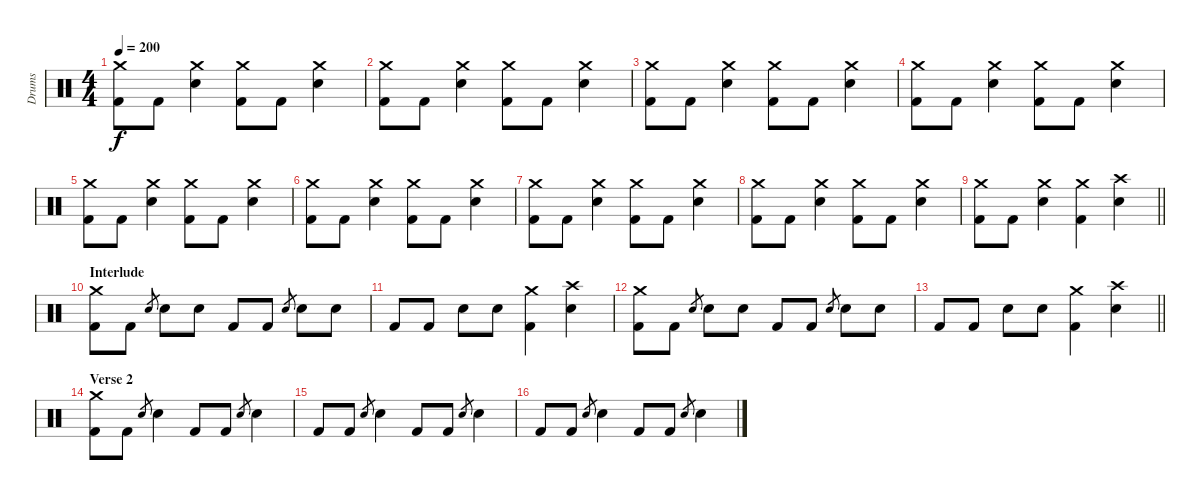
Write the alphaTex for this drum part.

\track ("Drums" "Drums") {instrument percussion}
\staff {score}
\articulation defaults
\ts (4 4)
\tempo 200
\clef neutral
\ks c
("Crash medium (hit)" "Kick (hit) 2").8{dy f} "Kick (hit) 2".8 ("Crash medium (hit)" "Electric Snare (hit)").4 ("Crash medium (hit)" "Kick (hit) 2").8 "Kick (hit) 2".8 ("Crash medium (hit)" "Electric Snare (hit)").4 |
("Crash medium (hit)" "Kick (hit) 2").8 "Kick (hit) 2".8 ("Crash medium (hit)" "Electric Snare (hit)").4 ("Crash medium (hit)" "Kick (hit) 2").8 "Kick (hit) 2".8 ("Crash medium (hit)" "Electric Snare (hit)").4 |
("Crash medium (hit)" "Kick (hit) 2").8 "Kick (hit) 2".8 ("Crash medium (hit)" "Electric Snare (hit)").4 ("Crash medium (hit)" "Kick (hit) 2").8 "Kick (hit) 2".8 ("Crash medium (hit)" "Electric Snare (hit)").4 |
("Crash medium (hit)" "Kick (hit) 2").8 "Kick (hit) 2".8 ("Crash medium (hit)" "Electric Snare (hit)").4 ("Crash medium (hit)" "Kick (hit) 2").8 "Kick (hit) 2".8 ("Crash medium (hit)" "Electric Snare (hit)").4 |
("Crash medium (hit)" "Kick (hit) 2").8 "Kick (hit) 2".8 ("Crash medium (hit)" "Electric Snare (hit)").4 ("Crash medium (hit)" "Kick (hit) 2").8 "Kick (hit) 2".8 ("Crash medium (hit)" "Electric Snare (hit)").4 |
("Crash medium (hit)" "Kick (hit) 2").8 "Kick (hit) 2".8 ("Crash medium (hit)" "Electric Snare (hit)").4 ("Crash medium (hit)" "Kick (hit) 2").8 "Kick (hit) 2".8 ("Crash medium (hit)" "Electric Snare (hit)").4 |
("Crash medium (hit)" "Kick (hit) 2").8 "Kick (hit) 2".8 ("Crash medium (hit)" "Electric Snare (hit)").4 ("Crash medium (hit)" "Kick (hit) 2").8 "Kick (hit) 2".8 ("Crash medium (hit)" "Electric Snare (hit)").4 |
("Crash medium (hit)" "Kick (hit) 2").8 "Kick (hit) 2".8 ("Crash medium (hit)" "Electric Snare (hit)").4 ("Crash medium (hit)" "Kick (hit) 2").8 "Kick (hit) 2".8 ("Crash medium (hit)" "Electric Snare (hit)").4 |
\barLineRight lightlight
("Crash medium (hit)" "Kick (hit) 2").8 "Kick (hit) 2".8 ("Crash medium (hit)" "Electric Snare (hit)").4 ("Crash medium (hit)" "Kick (hit) 2").4 ("Crash high (hit)" "Electric Snare (hit)").4 |
\section ("" "Interlude")
("Crash medium (hit)" "Kick (hit) 2").8 "Kick (hit) 2".8 "Electric Snare (hit)".8{gr} "Electric Snare (hit)".8 "Electric Snare (hit)".8 "Kick (hit) 2".8 "Kick (hit) 2".8 "Electric Snare (hit)".8{gr} "Electric Snare (hit)".8 "Electric Snare (hit)".8 |
"Kick (hit) 2".8 "Kick (hit) 2".8 "Electric Snare (hit)".8 "Electric Snare (hit)".8 ("Crash medium (hit)" "Kick (hit) 2").4 ("Crash high (hit)" "Electric Snare (hit)").4 |
("Crash medium (hit)" "Kick (hit) 2").8 "Kick (hit) 2".8 "Electric Snare (hit)".8{gr} "Electric Snare (hit)".8 "Electric Snare (hit)".8 "Kick (hit) 2".8 "Kick (hit) 2".8 "Electric Snare (hit)".8{gr} "Electric Snare (hit)".8 "Electric Snare (hit)".8 |
\barLineRight lightlight "Kick (hit) 2".8 "Kick (hit) 2".8 "Electric Snare (hit)".8 "Electric Snare (hit)".8
("Crash medium (hit)" "Kick (hit) 2").4 ("Crash high (hit)" "Electric Snare (hit)").4 |
\section ("" "Verse 2")
("Crash medium (hit)" "Kick (hit) 2").8 "Kick (hit) 2".8 "Electric Snare (hit)".8{gr} "Electric Snare (hit)".4 "Kick (hit) 2".8 "Kick (hit) 2".8 "Electric Snare (hit)".8{gr} "Electric Snare (hit)".4 |
"Kick (hit) 2".8 "Kick (hit) 2".8 "Electric Snare (hit)".8{gr} "Electric Snare (hit)".4 "Kick (hit) 2".8 "Kick (hit) 2".8 "Electric Snare (hit)".8{gr} "Electric Snare (hit)".4 |
"Kick (hit) 2".8 "Kick (hit) 2".8 "Electric Snare (hit)".8{gr} "Electric Snare (hit)".4 "Kick (hit) 2".8 "Kick (hit) 2".8 "Electric Snare (hit)".8{gr} "Electric Snare (hit)".4
